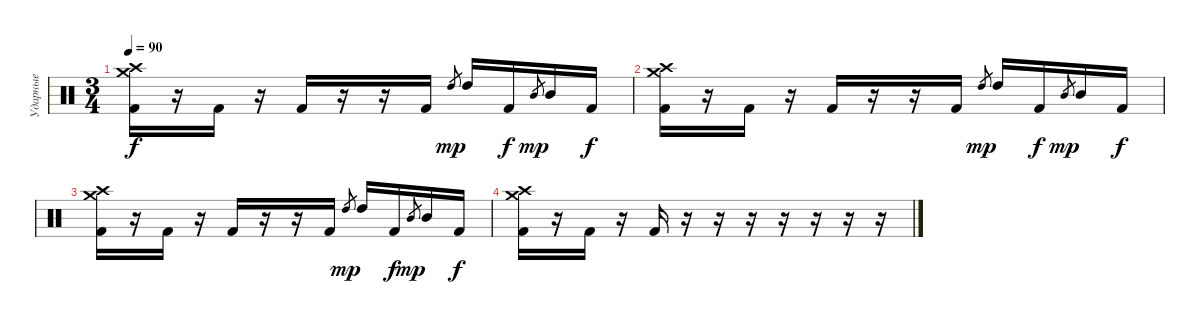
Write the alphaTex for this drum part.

\track ("Ударные" "Ударные") {instrument percussion}
\staff {score}
\articulation defaults
\ts (3 4)
\tempo 90
\clef neutral
\ks c
("Crash medium (hit)" "Crash high (hit)" "Kick (hit) 2").16{dy f} r.16 "Kick (hit) 2".16 r.16 "Kick (hit) 2".16 r.16 r.16 "Kick (hit) 2".16 "High Tom (hit)".8{gr dy mp} "High Tom (hit)".16 "Kick (hit) 2".16{dy f} "Mid Tom (hit)".8{gr dy mp} "Mid Tom (hit)".16 "Kick (hit) 2".16{dy f} |
("Crash medium (hit)" "Crash high (hit)" "Kick (hit) 2").16 r.16 "Kick (hit) 2".16 r.16 "Kick (hit) 2".16 r.16 r.16 "Kick (hit) 2".16 "High Tom (hit)".8{gr dy mp} "High Tom (hit)".16 "Kick (hit) 2".16{dy f} "Mid Tom (hit)".8{gr dy mp} "Mid Tom (hit)".16 "Kick (hit) 2".16{dy f} |
("Crash medium (hit)" "Crash high (hit)" "Kick (hit) 2").16 r.16 "Kick (hit) 2".16 r.16 "Kick (hit) 2".16 r.16 r.16 "Kick (hit) 2".16 "High Tom (hit)".8{gr dy mp} "High Tom (hit)".16 "Kick (hit) 2".16{dy f} "Mid Tom (hit)".8{gr dy mp} "Mid Tom (hit)".16 "Kick (hit) 2".16{dy f} |
("Crash medium (hit)" "Crash high (hit)" "Kick (hit) 2").16 r.16 "Kick (hit) 2".16 r.16 "Kick (hit) 2".16 r.16 r.16 r.16 r.16 r.16 r.16 r.16
